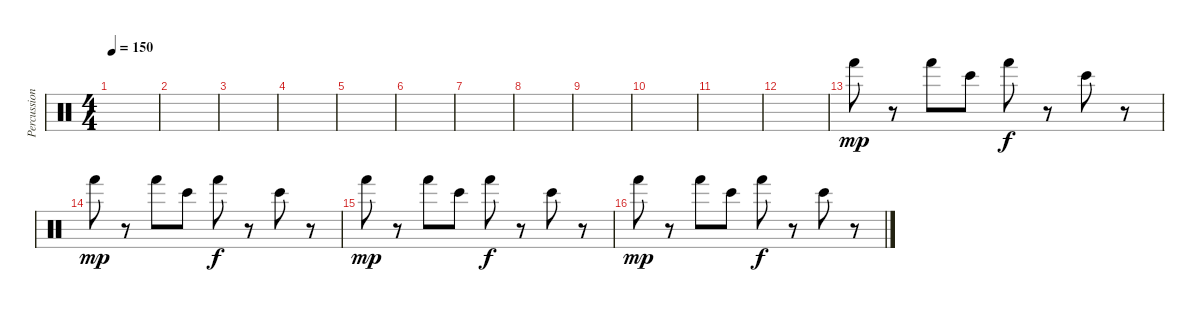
\track ("Percussion" "Percussion") {instrument percussion}
\staff {score}
\articulation defaults
\ts (4 4)
\tempo 150
\clef neutral
\ks c
|
|
|
|
|
|
|
|
|
|
|
|
"Hand (hit)".8{dy mp} r.8 "Hand (hit)".8 "Bongo High (hit)".8 "Hand (hit)".8{dy f} r.8 "Bongo High (hit)".8 r.8 |
"Hand (hit)".8{dy mp} r.8 "Hand (hit)".8 "Bongo High (hit)".8 "Hand (hit)".8{dy f} r.8 "Bongo High (hit)".8 r.8 |
"Hand (hit)".8{dy mp} r.8 "Hand (hit)".8 "Bongo High (hit)".8 "Hand (hit)".8{dy f} r.8 "Bongo High (hit)".8 r.8 |
"Hand (hit)".8{dy mp} r.8 "Hand (hit)".8 "Bongo High (hit)".8 "Hand (hit)".8{dy f} r.8 "Bongo High (hit)".8 r.8
